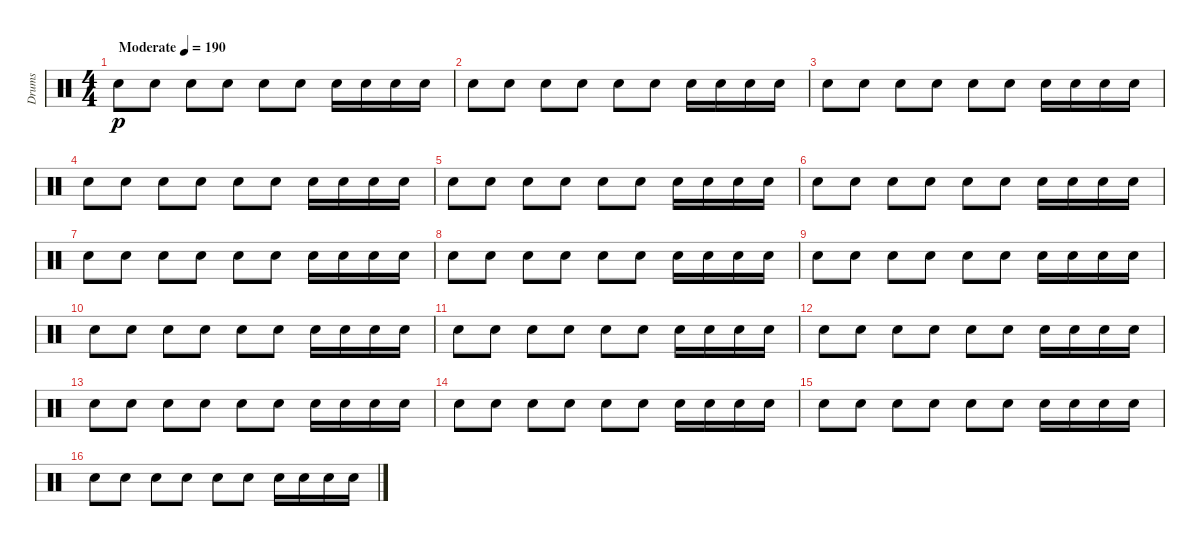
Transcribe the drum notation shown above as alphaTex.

\track ("Drums" "Drums") {instrument percussion}
\staff {score}
\articulation defaults
\ts (4 4)
\tempo (190 "Moderate")
\clef neutral
\ks c "Snare (hit) 2".8{dy p} "Snare (hit) 2".8 "Snare (hit) 2".8 "Snare (hit) 2".8 "Snare (hit) 2".8 "Snare (hit) 2".8 "Snare (hit) 2".16 "Snare (hit) 2".16 "Snare (hit) 2".16 "Snare (hit) 2".16
|
"Snare (hit) 2".8 "Snare (hit) 2".8 "Snare (hit) 2".8 "Snare (hit) 2".8 "Snare (hit) 2".8 "Snare (hit) 2".8 "Snare (hit) 2".16 "Snare (hit) 2".16 "Snare (hit) 2".16 "Snare (hit) 2".16 |
"Snare (hit) 2".8 "Snare (hit) 2".8 "Snare (hit) 2".8 "Snare (hit) 2".8 "Snare (hit) 2".8 "Snare (hit) 2".8 "Snare (hit) 2".16 "Snare (hit) 2".16 "Snare (hit) 2".16 "Snare (hit) 2".16 |
"Snare (hit) 2".8 "Snare (hit) 2".8 "Snare (hit) 2".8 "Snare (hit) 2".8 "Snare (hit) 2".8 "Snare (hit) 2".8 "Snare (hit) 2".16 "Snare (hit) 2".16 "Snare (hit) 2".16 "Snare (hit) 2".16 |
"Snare (hit) 2".8 "Snare (hit) 2".8 "Snare (hit) 2".8 "Snare (hit) 2".8 "Snare (hit) 2".8 "Snare (hit) 2".8 "Snare (hit) 2".16 "Snare (hit) 2".16 "Snare (hit) 2".16 "Snare (hit) 2".16 |
"Snare (hit) 2".8 "Snare (hit) 2".8 "Snare (hit) 2".8 "Snare (hit) 2".8 "Snare (hit) 2".8 "Snare (hit) 2".8 "Snare (hit) 2".16 "Snare (hit) 2".16 "Snare (hit) 2".16 "Snare (hit) 2".16 |
"Snare (hit) 2".8 "Snare (hit) 2".8 "Snare (hit) 2".8 "Snare (hit) 2".8 "Snare (hit) 2".8 "Snare (hit) 2".8 "Snare (hit) 2".16 "Snare (hit) 2".16 "Snare (hit) 2".16 "Snare (hit) 2".16 |
"Snare (hit) 2".8 "Snare (hit) 2".8 "Snare (hit) 2".8 "Snare (hit) 2".8 "Snare (hit) 2".8 "Snare (hit) 2".8 "Snare (hit) 2".16 "Snare (hit) 2".16 "Snare (hit) 2".16 "Snare (hit) 2".16 |
"Snare (hit) 2".8 "Snare (hit) 2".8 "Snare (hit) 2".8 "Snare (hit) 2".8 "Snare (hit) 2".8 "Snare (hit) 2".8 "Snare (hit) 2".16 "Snare (hit) 2".16 "Snare (hit) 2".16 "Snare (hit) 2".16 |
"Snare (hit) 2".8 "Snare (hit) 2".8 "Snare (hit) 2".8 "Snare (hit) 2".8 "Snare (hit) 2".8 "Snare (hit) 2".8 "Snare (hit) 2".16 "Snare (hit) 2".16 "Snare (hit) 2".16 "Snare (hit) 2".16 |
"Snare (hit) 2".8 "Snare (hit) 2".8 "Snare (hit) 2".8 "Snare (hit) 2".8 "Snare (hit) 2".8 "Snare (hit) 2".8 "Snare (hit) 2".16 "Snare (hit) 2".16 "Snare (hit) 2".16 "Snare (hit) 2".16 |
"Snare (hit) 2".8 "Snare (hit) 2".8 "Snare (hit) 2".8 "Snare (hit) 2".8 "Snare (hit) 2".8 "Snare (hit) 2".8 "Snare (hit) 2".16 "Snare (hit) 2".16 "Snare (hit) 2".16 "Snare (hit) 2".16 |
"Snare (hit) 2".8 "Snare (hit) 2".8 "Snare (hit) 2".8 "Snare (hit) 2".8 "Snare (hit) 2".8 "Snare (hit) 2".8 "Snare (hit) 2".16 "Snare (hit) 2".16 "Snare (hit) 2".16 "Snare (hit) 2".16 |
"Snare (hit) 2".8 "Snare (hit) 2".8 "Snare (hit) 2".8 "Snare (hit) 2".8 "Snare (hit) 2".8 "Snare (hit) 2".8 "Snare (hit) 2".16 "Snare (hit) 2".16 "Snare (hit) 2".16 "Snare (hit) 2".16 |
"Snare (hit) 2".8 "Snare (hit) 2".8 "Snare (hit) 2".8 "Snare (hit) 2".8 "Snare (hit) 2".8 "Snare (hit) 2".8 "Snare (hit) 2".16 "Snare (hit) 2".16 "Snare (hit) 2".16 "Snare (hit) 2".16 |
"Snare (hit) 2".8 "Snare (hit) 2".8 "Snare (hit) 2".8 "Snare (hit) 2".8 "Snare (hit) 2".8 "Snare (hit) 2".8 "Snare (hit) 2".16 "Snare (hit) 2".16 "Snare (hit) 2".16 "Snare (hit) 2".16
